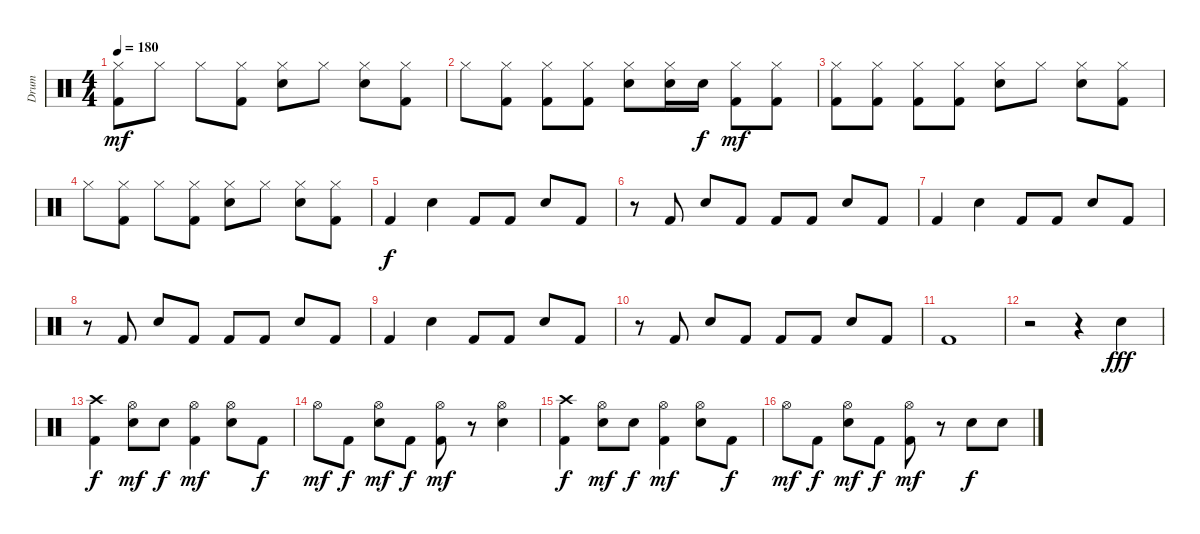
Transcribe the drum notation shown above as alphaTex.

\track ("Drum" "Drum") {instrument percussion}
\staff {score}
\articulation defaults
\ts (4 4)
\tempo 180
\clef neutral
\ks c
("Hi-Hat (closed)" "Kick (hit) 2").8{dy mf} "Hi-Hat (closed)".8 "Hi-Hat (closed)".8 ("Hi-Hat (closed)" "Kick (hit) 2").8 ("Hi-Hat (closed)" "Electric Snare (hit)").8 "Hi-Hat (closed)".8 ("Hi-Hat (closed)" "Electric Snare (hit)").8 ("Hi-Hat (closed)" "Kick (hit) 2").8 |
"Hi-Hat (closed)".8 ("Hi-Hat (closed)" "Kick (hit) 2").8 ("Hi-Hat (closed)" "Kick (hit) 2").8 ("Hi-Hat (closed)" "Kick (hit) 2").8 ("Hi-Hat (closed)" "Electric Snare (hit)").8 ("Hi-Hat (closed)" "Electric Snare (hit)").16 "Electric Snare (hit)".16{dy f} ("Hi-Hat (closed)" "Kick (hit) 2").8{dy mf} ("Hi-Hat (closed)" "Kick (hit) 2").8 |
("Hi-Hat (closed)" "Kick (hit) 2").8 ("Hi-Hat (closed)" "Kick (hit) 2").8 ("Hi-Hat (closed)" "Kick (hit) 2").8 ("Hi-Hat (closed)" "Kick (hit) 2").8 ("Hi-Hat (closed)" "Electric Snare (hit)").8 "Hi-Hat (closed)".8 ("Hi-Hat (closed)" "Electric Snare (hit)").8 ("Hi-Hat (closed)" "Kick (hit) 2").8 |
"Hi-Hat (closed)".8 ("Hi-Hat (closed)" "Kick (hit) 2").8 "Hi-Hat (closed)".8 ("Hi-Hat (closed)" "Kick (hit) 2").8 ("Hi-Hat (closed)" "Electric Snare (hit)").8 "Hi-Hat (closed)".8 ("Hi-Hat (closed)" "Electric Snare (hit)").8 ("Hi-Hat (closed)" "Kick (hit) 2").8 |
"Kick (hit) 2".4{dy f} "Electric Snare (hit)".4 "Kick (hit) 2".8 "Kick (hit) 2".8 "Electric Snare (hit)".8 "Kick (hit) 2".8 |
r.8 "Kick (hit) 2".8 "Electric Snare (hit)".8 "Kick (hit) 2".8 "Kick (hit) 2".8 "Kick (hit) 2".8 "Electric Snare (hit)".8 "Kick (hit) 2".8 |
"Kick (hit) 2".4 "Electric Snare (hit)".4 "Kick (hit) 2".8 "Kick (hit) 2".8 "Electric Snare (hit)".8 "Kick (hit) 2".8 |
r.8 "Kick (hit) 2".8 "Electric Snare (hit)".8 "Kick (hit) 2".8 "Kick (hit) 2".8 "Kick (hit) 2".8 "Electric Snare (hit)".8 "Kick (hit) 2".8 |
"Kick (hit) 2".4 "Electric Snare (hit)".4 "Kick (hit) 2".8 "Kick (hit) 2".8 "Electric Snare (hit)".8 "Kick (hit) 2".8 |
r.8 "Kick (hit) 2".8 "Electric Snare (hit)".8 "Kick (hit) 2".8 "Kick (hit) 2".8 "Kick (hit) 2".8 "Electric Snare (hit)".8 "Kick (hit) 2".8 |
"Kick (hit) 2".1 |
r.2 r.4 "Electric Snare (hit)".4{dy fff} |
("Crash high (hit)" "Kick (hit) 2").4{dy f volume 16} ("Hi-Hat (open)" "Electric Snare (hit)").8{dy mf} "Electric Snare (hit)".8{dy f} ("Hi-Hat (open)" "Kick (hit) 2").4{dy mf} ("Hi-Hat (open)" "Electric Snare (hit)").8 "Kick (hit) 2".8{dy f} |
"Hi-Hat (open)".8{dy mf} "Kick (hit) 2".8{dy f} ("Hi-Hat (open)" "Electric Snare (hit)").8{dy mf} "Kick (hit) 2".8{dy f} ("Hi-Hat (open)" "Kick (hit) 2").8{dy mf} r.8 ("Hi-Hat (open)" "Electric Snare (hit)").4 |
("Crash high (hit)" "Kick (hit) 2").4{dy f volume 16} ("Hi-Hat (open)" "Electric Snare (hit)").8{dy mf} "Electric Snare (hit)".8{dy f} ("Hi-Hat (open)" "Kick (hit) 2").4{dy mf} ("Hi-Hat (open)" "Electric Snare (hit)").8 "Kick (hit) 2".8{dy f} |
"Hi-Hat (open)".8{dy mf} "Kick (hit) 2".8{dy f} ("Hi-Hat (open)" "Electric Snare (hit)").8{dy mf} "Kick (hit) 2".8{dy f} ("Hi-Hat (open)" "Kick (hit) 2").8{dy mf} r.8 "Electric Snare (hit)".8{dy f} "Electric Snare (hit)".8
